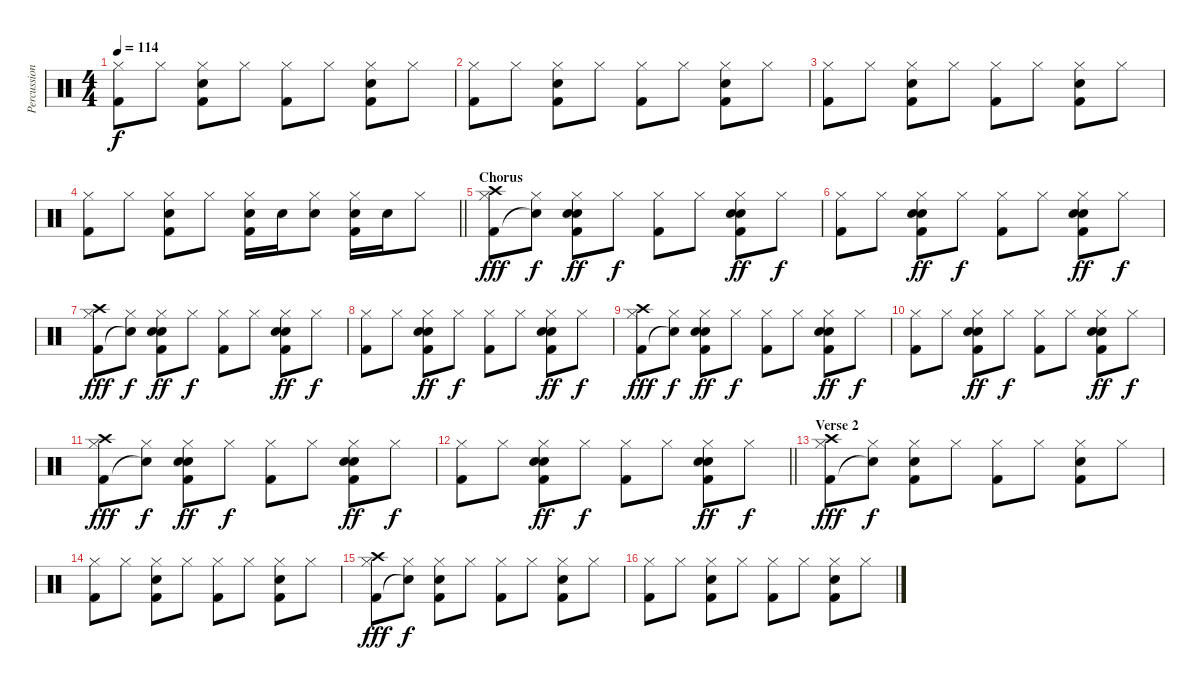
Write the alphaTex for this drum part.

\track ("Percussion" "Percussion") {instrument percussion}
\staff {score}
\articulation defaults
\ts (4 4)
\tempo 114
\clef neutral
\ks c
("Hi-Hat (closed)" "Kick (hit) 2").8{dy f} "Hi-Hat (closed)".8 ("Hi-Hat (closed)" "Snare (hit) 2" "Kick (hit) 2").8 "Hi-Hat (closed)".8 ("Hi-Hat (closed)" "Kick (hit) 2").8 "Hi-Hat (closed)".8 ("Hi-Hat (closed)" "Snare (hit) 2" "Kick (hit) 2").8 "Hi-Hat (closed)".8 |
("Hi-Hat (closed)" "Kick (hit) 2").8 "Hi-Hat (closed)".8 ("Hi-Hat (closed)" "Snare (hit) 2" "Kick (hit) 2").8 "Hi-Hat (closed)".8 ("Hi-Hat (closed)" "Kick (hit) 2").8 "Hi-Hat (closed)".8 ("Hi-Hat (closed)" "Snare (hit) 2" "Kick (hit) 2").8 "Hi-Hat (closed)".8 |
("Hi-Hat (closed)" "Kick (hit) 2").8 "Hi-Hat (closed)".8 ("Hi-Hat (closed)" "Snare (hit) 2" "Kick (hit) 2").8 "Hi-Hat (closed)".8 ("Hi-Hat (closed)" "Kick (hit) 2").8 "Hi-Hat (closed)".8 ("Hi-Hat (closed)" "Snare (hit) 2" "Kick (hit) 2").8 "Hi-Hat (closed)".8 |
\barLineRight lightlight
("Hi-Hat (closed)" "Kick (hit) 2").8 "Hi-Hat (closed)".8 ("Hi-Hat (closed)" "Snare (hit) 2" "Kick (hit) 2").8 "Hi-Hat (closed)".8 ("Hi-Hat (closed)" "Snare (hit) 2" "Kick (hit) 2").16 "Snare (hit) 2".16 ("Hi-Hat (closed)" "Snare (hit) 2").8 ("Hi-Hat (closed)" "Snare (hit) 2" "Kick (hit) 2").16 "Snare (hit) 2".16 "Hi-Hat (closed)".8 |
\section ("" "Chorus")
("Hi-Hat (closed)" "Kick (hit) 2" "Crash high (hit)").8{dy fff} ("Hi-Hat (closed)" "Snare (hit)"{t}).8{dy f} ("Hand Clap (hit)" "Hi-Hat (closed)" "Snare (hit) 2" "Kick (hit) 2").8{dy ff} "Hi-Hat (closed)".8{dy f} ("Hi-Hat (closed)" "Kick (hit) 2").8 "Hi-Hat (closed)".8 ("Hand Clap (hit)" "Hi-Hat (closed)" "Snare (hit) 2" "Kick (hit) 2").8{dy ff} "Hi-Hat (closed)".8{dy f} |
("Hi-Hat (closed)" "Kick (hit) 2").8 "Hi-Hat (closed)".8 ("Hand Clap (hit)" "Hi-Hat (closed)" "Snare (hit) 2" "Kick (hit) 2").8{dy ff} "Hi-Hat (closed)".8{dy f} ("Hi-Hat (closed)" "Kick (hit) 2").8 "Hi-Hat (closed)".8 ("Hand Clap (hit)" "Hi-Hat (closed)" "Snare (hit) 2" "Kick (hit) 2").8{dy ff} "Hi-Hat (closed)".8{dy f} |
("Hi-Hat (closed)" "Kick (hit) 2" "Crash high (hit)").8{dy fff} ("Hi-Hat (closed)" "Snare (hit)"{t}).8{dy f} ("Hand Clap (hit)" "Hi-Hat (closed)" "Snare (hit) 2" "Kick (hit) 2").8{dy ff} "Hi-Hat (closed)".8{dy f} ("Hi-Hat (closed)" "Kick (hit) 2").8 "Hi-Hat (closed)".8 ("Hand Clap (hit)" "Hi-Hat (closed)" "Snare (hit) 2" "Kick (hit) 2").8{dy ff} "Hi-Hat (closed)".8{dy f} |
("Hi-Hat (closed)" "Kick (hit) 2").8 "Hi-Hat (closed)".8 ("Hand Clap (hit)" "Hi-Hat (closed)" "Snare (hit) 2" "Kick (hit) 2").8{dy ff} "Hi-Hat (closed)".8{dy f} ("Hi-Hat (closed)" "Kick (hit) 2").8 "Hi-Hat (closed)".8 ("Hand Clap (hit)" "Hi-Hat (closed)" "Snare (hit) 2" "Kick (hit) 2").8{dy ff} "Hi-Hat (closed)".8{dy f} |
("Hi-Hat (closed)" "Kick (hit) 2" "Crash high (hit)").8{dy fff} ("Hi-Hat (closed)" "Snare (hit)"{t}).8{dy f} ("Hand Clap (hit)" "Hi-Hat (closed)" "Snare (hit) 2" "Kick (hit) 2").8{dy ff} "Hi-Hat (closed)".8{dy f} ("Hi-Hat (closed)" "Kick (hit) 2").8 "Hi-Hat (closed)".8 ("Hand Clap (hit)" "Hi-Hat (closed)" "Snare (hit) 2" "Kick (hit) 2").8{dy ff} "Hi-Hat (closed)".8{dy f} |
("Hi-Hat (closed)" "Kick (hit) 2").8 "Hi-Hat (closed)".8 ("Hand Clap (hit)" "Hi-Hat (closed)" "Snare (hit) 2" "Kick (hit) 2").8{dy ff} "Hi-Hat (closed)".8{dy f} ("Hi-Hat (closed)" "Kick (hit) 2").8 "Hi-Hat (closed)".8 ("Hand Clap (hit)" "Hi-Hat (closed)" "Snare (hit) 2" "Kick (hit) 2").8{dy ff} "Hi-Hat (closed)".8{dy f} |
("Hi-Hat (closed)" "Kick (hit) 2" "Crash high (hit)").8{dy fff} ("Hi-Hat (closed)" "Snare (hit)"{t}).8{dy f} ("Hand Clap (hit)" "Hi-Hat (closed)" "Snare (hit) 2" "Kick (hit) 2").8{dy ff} "Hi-Hat (closed)".8{dy f} ("Hi-Hat (closed)" "Kick (hit) 2").8 "Hi-Hat (closed)".8 ("Hand Clap (hit)" "Hi-Hat (closed)" "Snare (hit) 2" "Kick (hit) 2").8{dy ff} "Hi-Hat (closed)".8{dy f} |
\barLineRight lightlight
("Hi-Hat (closed)" "Kick (hit) 2").8 "Hi-Hat (closed)".8 ("Hand Clap (hit)" "Hi-Hat (closed)" "Snare (hit) 2" "Kick (hit) 2").8{dy ff} "Hi-Hat (closed)".8{dy f} ("Hi-Hat (closed)" "Kick (hit) 2").8 "Hi-Hat (closed)".8 ("Hand Clap (hit)" "Hi-Hat (closed)" "Snare (hit) 2" "Kick (hit) 2").8{dy ff} "Hi-Hat (closed)".8{dy f} |
\section ("" "Verse 2")
("Hi-Hat (closed)" "Kick (hit) 2" "Crash high (hit)").8{dy fff} ("Hi-Hat (closed)" "Snare (hit)"{t}).8{dy f} ("Hi-Hat (closed)" "Snare (hit) 2" "Kick (hit) 2").8 "Hi-Hat (closed)".8 ("Hi-Hat (closed)" "Kick (hit) 2").8 "Hi-Hat (closed)".8 ("Hi-Hat (closed)" "Snare (hit) 2" "Kick (hit) 2").8 "Hi-Hat (closed)".8 |
("Hi-Hat (closed)" "Kick (hit) 2").8 "Hi-Hat (closed)".8 ("Hi-Hat (closed)" "Snare (hit) 2" "Kick (hit) 2").8 "Hi-Hat (closed)".8 ("Hi-Hat (closed)" "Kick (hit) 2").8 "Hi-Hat (closed)".8 ("Hi-Hat (closed)" "Snare (hit) 2" "Kick (hit) 2").8 "Hi-Hat (closed)".8 |
("Hi-Hat (closed)" "Kick (hit) 2" "Crash high (hit)").8{dy fff} ("Hi-Hat (closed)" "Snare (hit)"{t}).8{dy f} ("Hi-Hat (closed)" "Snare (hit) 2" "Kick (hit) 2").8 "Hi-Hat (closed)".8 ("Hi-Hat (closed)" "Kick (hit) 2").8 "Hi-Hat (closed)".8 ("Hi-Hat (closed)" "Snare (hit) 2" "Kick (hit) 2").8 "Hi-Hat (closed)".8 |
("Hi-Hat (closed)" "Kick (hit) 2").8 "Hi-Hat (closed)".8 ("Hi-Hat (closed)" "Snare (hit) 2" "Kick (hit) 2").8 "Hi-Hat (closed)".8 ("Hi-Hat (closed)" "Kick (hit) 2").8 "Hi-Hat (closed)".8 ("Hi-Hat (closed)" "Snare (hit) 2" "Kick (hit) 2").8 "Hi-Hat (closed)".8
